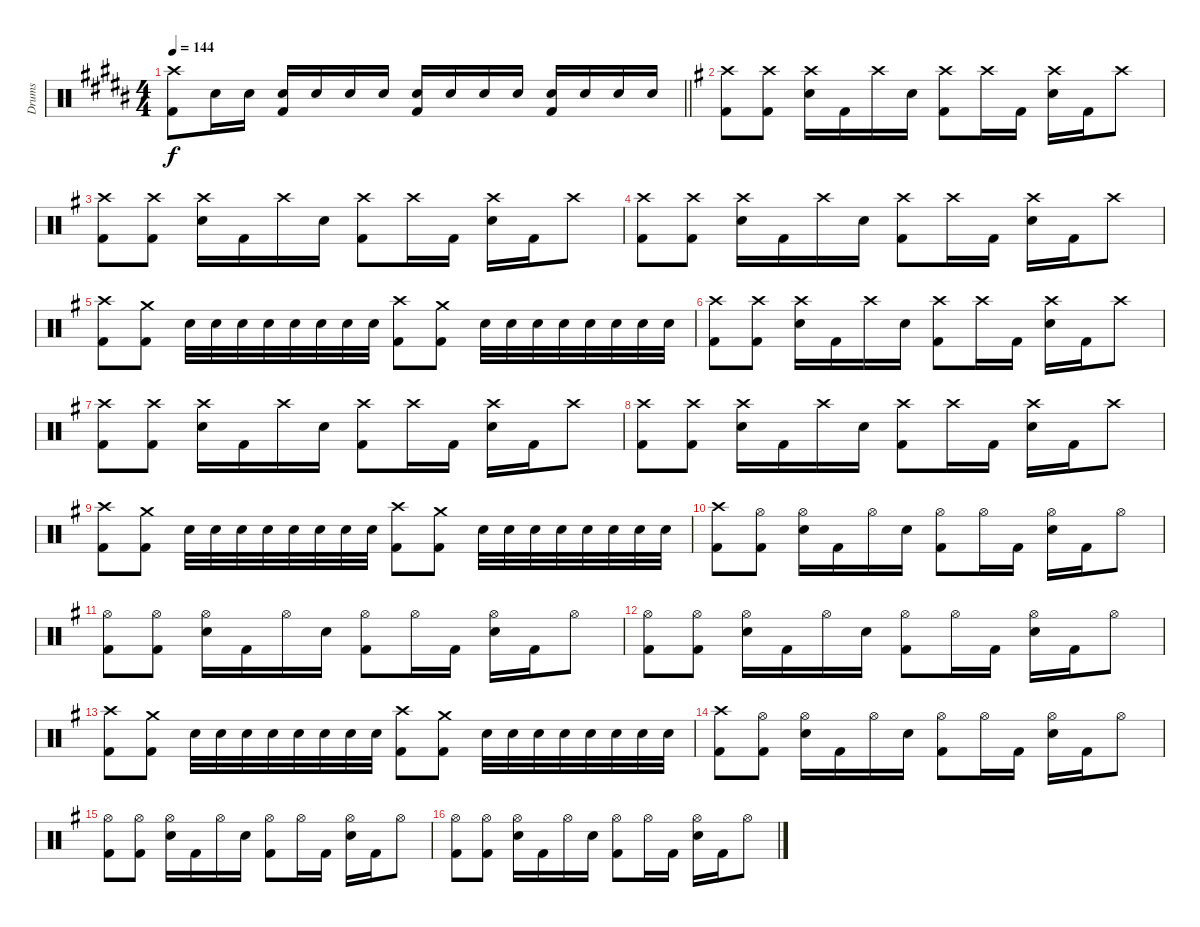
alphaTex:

\track ("Drums" "Drums") {instrument percussion}
\staff {score}
\articulation defaults
\ts (4 4)
\tempo 144
\clef neutral
\barLineRight lightlight
\ks g#minor
("Crash high (hit)" "Kick (hit) 2").8{dy f} "Snare (hit) 2".16 "Snare (hit) 2".16 ("Snare (hit) 2" "Kick (hit) 2").16 "Snare (hit) 2".16 "Snare (hit) 2".16 "Snare (hit) 2".16 ("Snare (hit) 2" "Kick (hit) 2").16 "Snare (hit) 2".16 "Snare (hit) 2".16 "Snare (hit) 2".16 ("Snare (hit) 2" "Kick (hit) 2").16 "Snare (hit) 2".16 "Snare (hit) 2".16 "Snare (hit) 2".16 |
\ks eminor
("Crash high (hit)" "Kick (hit) 2").8 ("Crash high (hit)" "Kick (hit) 2").8 ("Crash high (hit)" "Snare (hit) 2").16 "Kick (hit) 2".16 "Crash high (hit)".16 "Snare (hit) 2".16 ("Crash high (hit)" "Kick (hit) 2").8 "Crash high (hit)".16 "Kick (hit) 2".16 ("Crash high (hit)" "Snare (hit) 2").16 "Kick (hit) 2".16 "Crash high (hit)".8 |
("Crash high (hit)" "Kick (hit) 2").8 ("Crash high (hit)" "Kick (hit) 2").8 ("Crash high (hit)" "Snare (hit) 2").16 "Kick (hit) 2".16 "Crash high (hit)".16 "Snare (hit) 2".16 ("Crash high (hit)" "Kick (hit) 2").8 "Crash high (hit)".16 "Kick (hit) 2".16 ("Crash high (hit)" "Snare (hit) 2").16 "Kick (hit) 2".16 "Crash high (hit)".8 |
("Crash high (hit)" "Kick (hit) 2").8 ("Crash high (hit)" "Kick (hit) 2").8 ("Crash high (hit)" "Snare (hit) 2").16 "Kick (hit) 2".16 "Crash high (hit)".16 "Snare (hit) 2".16 ("Crash high (hit)" "Kick (hit) 2").8 "Crash high (hit)".16 "Kick (hit) 2".16 ("Crash high (hit)" "Snare (hit) 2").16 "Kick (hit) 2".16 "Crash high (hit)".8 |
("Crash high (hit)" "Kick (hit) 2").8 ("Crash medium (hit)" "Kick (hit) 2").8 "Snare (hit) 2".32 "Snare (hit) 2".32 "Snare (hit) 2".32 "Snare (hit) 2".32 "Snare (hit) 2".32 "Snare (hit) 2".32 "Snare (hit) 2".32 "Snare (hit) 2".32 ("Crash high (hit)" "Kick (hit) 2").8 ("Crash medium (hit)" "Kick (hit) 2").8 "Snare (hit) 2".32 "Snare (hit) 2".32 "Snare (hit) 2".32 "Snare (hit) 2".32 "Snare (hit) 2".32 "Snare (hit) 2".32 "Snare (hit) 2".32 "Snare (hit) 2".32 |
("Crash high (hit)" "Kick (hit) 2").8 ("Crash high (hit)" "Kick (hit) 2").8 ("Crash high (hit)" "Snare (hit) 2").16 "Kick (hit) 2".16 "Crash high (hit)".16 "Snare (hit) 2".16 ("Crash high (hit)" "Kick (hit) 2").8 "Crash high (hit)".16 "Kick (hit) 2".16 ("Crash high (hit)" "Snare (hit) 2").16 "Kick (hit) 2".16 "Crash high (hit)".8 |
("Crash high (hit)" "Kick (hit) 2").8 ("Crash high (hit)" "Kick (hit) 2").8 ("Crash high (hit)" "Snare (hit) 2").16 "Kick (hit) 2".16 "Crash high (hit)".16 "Snare (hit) 2".16 ("Crash high (hit)" "Kick (hit) 2").8 "Crash high (hit)".16 "Kick (hit) 2".16 ("Crash high (hit)" "Snare (hit) 2").16 "Kick (hit) 2".16 "Crash high (hit)".8 |
("Crash high (hit)" "Kick (hit) 2").8 ("Crash high (hit)" "Kick (hit) 2").8 ("Crash high (hit)" "Snare (hit) 2").16 "Kick (hit) 2".16 "Crash high (hit)".16 "Snare (hit) 2".16 ("Crash high (hit)" "Kick (hit) 2").8 "Crash high (hit)".16 "Kick (hit) 2".16 ("Crash high (hit)" "Snare (hit) 2").16 "Kick (hit) 2".16 "Crash high (hit)".8 |
("Crash high (hit)" "Kick (hit) 2").8 ("Crash medium (hit)" "Kick (hit) 2").8 "Snare (hit) 2".32 "Snare (hit) 2".32 "Snare (hit) 2".32 "Snare (hit) 2".32 "Snare (hit) 2".32 "Snare (hit) 2".32 "Snare (hit) 2".32 "Snare (hit) 2".32 ("Crash high (hit)" "Kick (hit) 2").8 ("Crash medium (hit)" "Kick (hit) 2").8 "Snare (hit) 2".32 "Snare (hit) 2".32 "Snare (hit) 2".32 "Snare (hit) 2".32 "Snare (hit) 2".32 "Snare (hit) 2".32 "Snare (hit) 2".32 "Snare (hit) 2".32 |
("Crash high (hit)" "Kick (hit) 2").8 ("Hi-Hat (open)" "Kick (hit) 2").8 ("Hi-Hat (open)" "Snare (hit) 2").16 "Kick (hit) 2".16 "Hi-Hat (open)".16 "Snare (hit) 2".16 ("Hi-Hat (open)" "Kick (hit) 2").8 "Hi-Hat (open)".16 "Kick (hit) 2".16 ("Hi-Hat (open)" "Snare (hit) 2").16 "Kick (hit) 2".16 "Hi-Hat (open)".8 |
("Hi-Hat (open)" "Kick (hit) 2").8 ("Hi-Hat (open)" "Kick (hit) 2").8 ("Hi-Hat (open)" "Snare (hit) 2").16 "Kick (hit) 2".16 "Hi-Hat (open)".16 "Snare (hit) 2".16 ("Hi-Hat (open)" "Kick (hit) 2").8 "Hi-Hat (open)".16 "Kick (hit) 2".16 ("Hi-Hat (open)" "Snare (hit) 2").16 "Kick (hit) 2".16 "Hi-Hat (open)".8 |
("Hi-Hat (open)" "Kick (hit) 2").8 ("Hi-Hat (open)" "Kick (hit) 2").8 ("Hi-Hat (open)" "Snare (hit) 2").16 "Kick (hit) 2".16 "Hi-Hat (open)".16 "Snare (hit) 2".16 ("Hi-Hat (open)" "Kick (hit) 2").8 "Hi-Hat (open)".16 "Kick (hit) 2".16 ("Hi-Hat (open)" "Snare (hit) 2").16 "Kick (hit) 2".16 "Hi-Hat (open)".8 |
("Crash high (hit)" "Kick (hit) 2").8 ("Crash medium (hit)" "Kick (hit) 2").8 "Snare (hit) 2".32 "Snare (hit) 2".32 "Snare (hit) 2".32 "Snare (hit) 2".32 "Snare (hit) 2".32 "Snare (hit) 2".32 "Snare (hit) 2".32 "Snare (hit) 2".32 ("Crash high (hit)" "Kick (hit) 2").8 ("Crash medium (hit)" "Kick (hit) 2").8 "Snare (hit) 2".32 "Snare (hit) 2".32 "Snare (hit) 2".32 "Snare (hit) 2".32 "Snare (hit) 2".32 "Snare (hit) 2".32 "Snare (hit) 2".32 "Snare (hit) 2".32 |
("Crash high (hit)" "Kick (hit) 2").8 ("Hi-Hat (open)" "Kick (hit) 2").8 ("Hi-Hat (open)" "Snare (hit) 2").16 "Kick (hit) 2".16 "Hi-Hat (open)".16 "Snare (hit) 2".16 ("Hi-Hat (open)" "Kick (hit) 2").8 "Hi-Hat (open)".16 "Kick (hit) 2".16 ("Hi-Hat (open)" "Snare (hit) 2").16 "Kick (hit) 2".16 "Hi-Hat (open)".8 |
("Hi-Hat (open)" "Kick (hit) 2").8 ("Hi-Hat (open)" "Kick (hit) 2").8 ("Hi-Hat (open)" "Snare (hit) 2").16 "Kick (hit) 2".16 "Hi-Hat (open)".16 "Snare (hit) 2".16 ("Hi-Hat (open)" "Kick (hit) 2").8 "Hi-Hat (open)".16 "Kick (hit) 2".16 ("Hi-Hat (open)" "Snare (hit) 2").16 "Kick (hit) 2".16 "Hi-Hat (open)".8 |
("Hi-Hat (open)" "Kick (hit) 2").8 ("Hi-Hat (open)" "Kick (hit) 2").8 ("Hi-Hat (open)" "Snare (hit) 2").16 "Kick (hit) 2".16 "Hi-Hat (open)".16 "Snare (hit) 2".16 ("Hi-Hat (open)" "Kick (hit) 2").8 "Hi-Hat (open)".16 "Kick (hit) 2".16 ("Hi-Hat (open)" "Snare (hit) 2").16 "Kick (hit) 2".16 "Hi-Hat (open)".8
